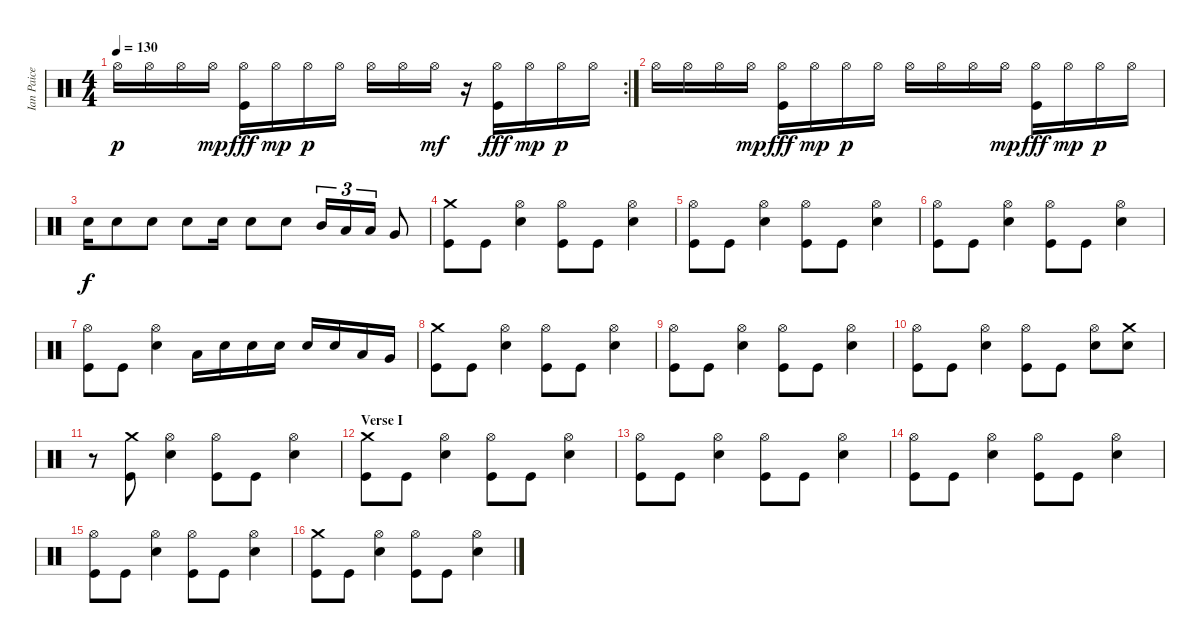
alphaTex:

\track ("Ian Paice - Drums" "Ian Paice ") {instrument percussion}
\staff {score}
\articulation defaults
\rc 2
\ts (4 4)
\tempo 130
\clef neutral
\ks c "Hi-Hat (open)".16{dy p} "Hi-Hat (open)".16 "Hi-Hat (open)".16 "Hi-Hat (open)".16{dy mp}
("Hi-Hat (open)" "Kick (hit)").16{dy fff} "Hi-Hat (open)".16{dy mp} "Hi-Hat (open)".16{dy p} "Hi-Hat (open)".16 "Hi-Hat (open)".16 "Hi-Hat (open)".16 "Hi-Hat (open)".16{dy mf} r.16 ("Hi-Hat (open)" "Kick (hit)").16{dy fff} "Hi-Hat (open)".16{dy mp} "Hi-Hat (open)".16{dy p} "Hi-Hat (open)".16 |
"Hi-Hat (open)".16 "Hi-Hat (open)".16 "Hi-Hat (open)".16 "Hi-Hat (open)".16{dy mp} ("Hi-Hat (open)" "Kick (hit)").16{dy fff} "Hi-Hat (open)".16{dy mp} "Hi-Hat (open)".16{dy p} "Hi-Hat (open)".16 "Hi-Hat (open)".16 "Hi-Hat (open)".16 "Hi-Hat (open)".16 "Hi-Hat (open)".16{dy mp} ("Hi-Hat (open)" "Kick (hit)").16{dy fff} "Hi-Hat (open)".16{dy mp} "Hi-Hat (open)".16{dy p} "Hi-Hat (open)".16 |
"Snare (hit) 2".16{dy f} "Snare (hit) 2".8 "Snare (hit) 2".8 "Snare (hit) 2".8 "Snare (hit) 2".16 "Snare (hit) 2".8 "Snare (hit) 2".8 "Mid Tom (hit)".16{tu (3 2)} "Low Tom (hit)".16{tu (3 2)} "Low Tom (hit)".16{tu (3 2)} "Very Low Tom (hit)".8 |
("Crash medium (hit)" "Kick (hit)").8 "Kick (hit)".8 ("Hi-Hat (open)" "Snare (hit) 2").4 ("Hi-Hat (open)" "Kick (hit)").8 "Kick (hit)".8 ("Hi-Hat (open)" "Snare (hit) 2").4 |
("Hi-Hat (open)" "Kick (hit)").8 "Kick (hit)".8 ("Hi-Hat (open)" "Snare (hit) 2").4 ("Hi-Hat (open)" "Kick (hit)").8 "Kick (hit)".8 ("Hi-Hat (open)" "Snare (hit) 2").4 |
("Hi-Hat (open)" "Kick (hit)").8 "Kick (hit)".8 ("Hi-Hat (open)" "Snare (hit) 2").4 ("Hi-Hat (open)" "Kick (hit)").8 "Kick (hit)".8 ("Hi-Hat (open)" "Snare (hit) 2").4 |
("Hi-Hat (open)" "Kick (hit)").8 "Kick (hit)".8 ("Hi-Hat (open)" "Snare (hit) 2").4 "Low Tom (hit)".16 "Snare (hit) 2".16 "Snare (hit) 2".16 "Snare (hit) 2".16 "Snare (hit) 2".16 "Snare (hit) 2".16 "Low Tom (hit)".16 "Very Low Tom (hit)".16 |
("Crash medium (hit)" "Kick (hit)").8 "Kick (hit)".8 ("Hi-Hat (open)" "Snare (hit) 2").4 ("Hi-Hat (open)" "Kick (hit)").8 "Kick (hit)".8 ("Hi-Hat (open)" "Snare (hit) 2").4 |
("Hi-Hat (open)" "Kick (hit)").8 "Kick (hit)".8 ("Hi-Hat (open)" "Snare (hit) 2").4 ("Hi-Hat (open)" "Kick (hit)").8 "Kick (hit)".8 ("Hi-Hat (open)" "Snare (hit) 2").4 |
("Hi-Hat (open)" "Kick (hit)").8 "Kick (hit)".8 ("Hi-Hat (open)" "Snare (hit) 2").4 ("Hi-Hat (open)" "Kick (hit)").8 "Kick (hit)".8 ("Hi-Hat (open)" "Snare (hit) 2").8 ("Crash medium (hit)" "Snare (hit) 2").8 |
r.8 ("Crash medium (hit)" "Kick (hit)").8 ("Hi-Hat (open)" "Snare (hit) 2").4 ("Hi-Hat (open)" "Kick (hit)").8 "Kick (hit)".8 ("Hi-Hat (open)" "Snare (hit) 2").4 |
\section ("" "Verse I")
("Crash medium (hit)" "Kick (hit)").8 "Kick (hit)".8 ("Hi-Hat (open)" "Snare (hit) 2").4 ("Hi-Hat (open)" "Kick (hit)").8 "Kick (hit)".8 ("Hi-Hat (open)" "Snare (hit) 2").4 |
("Hi-Hat (open)" "Kick (hit)").8 "Kick (hit)".8 ("Hi-Hat (open)" "Snare (hit) 2").4 ("Hi-Hat (open)" "Kick (hit)").8 "Kick (hit)".8 ("Hi-Hat (open)" "Snare (hit) 2").4 |
("Hi-Hat (open)" "Kick (hit)").8 "Kick (hit)".8 ("Hi-Hat (open)" "Snare (hit) 2").4 ("Hi-Hat (open)" "Kick (hit)").8 "Kick (hit)".8 ("Hi-Hat (open)" "Snare (hit) 2").4 |
("Hi-Hat (open)" "Kick (hit)").8 "Kick (hit)".8 ("Hi-Hat (open)" "Snare (hit) 2").4 ("Hi-Hat (open)" "Kick (hit)").8 "Kick (hit)".8 ("Hi-Hat (open)" "Snare (hit) 2").4 |
("Crash medium (hit)" "Kick (hit)").8 "Kick (hit)".8 ("Hi-Hat (open)" "Snare (hit) 2").4 ("Hi-Hat (open)" "Kick (hit)").8 "Kick (hit)".8 ("Hi-Hat (open)" "Snare (hit) 2").4
